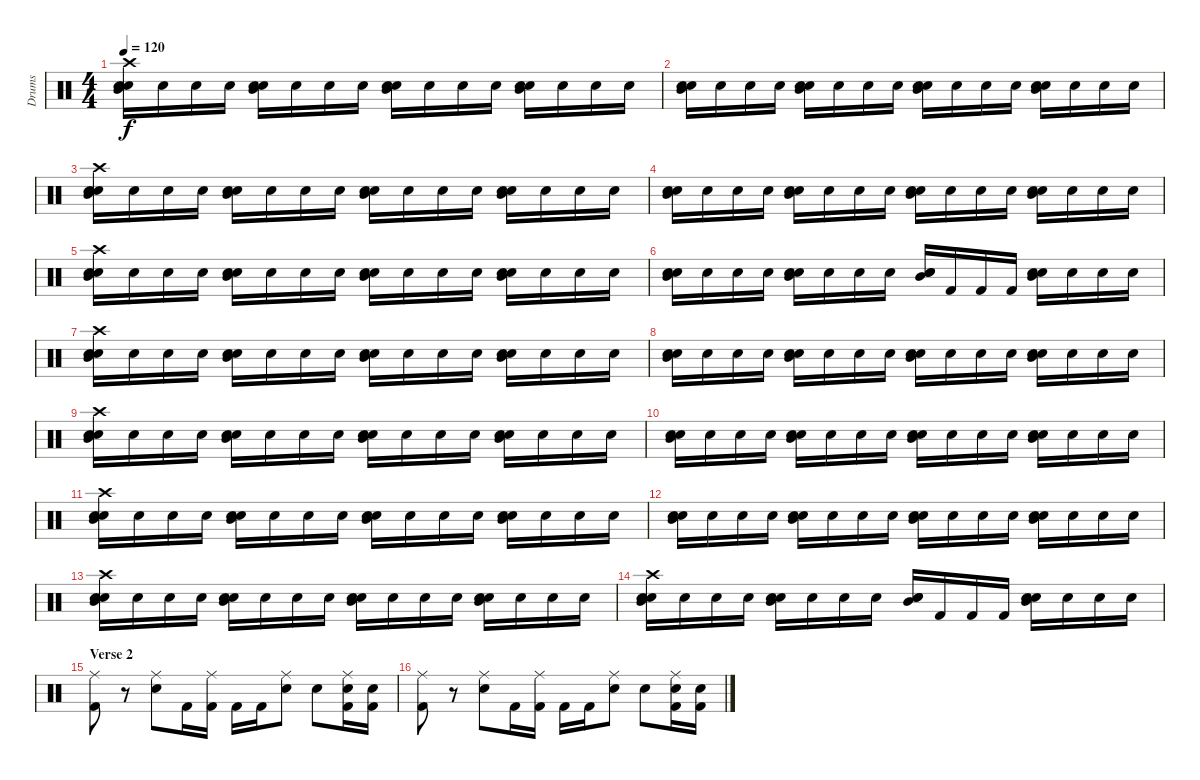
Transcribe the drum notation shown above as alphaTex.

\track ("Drums" "Drums") {instrument percussion}
\staff {score}
\articulation defaults
\ts (4 4)
\tempo 120
\clef neutral
\ks c
("Electric Snare (hit)" "Snare (hit) 2" "Mid Tom (hit)" "Crash high (hit)").16{dy f} "Snare (hit) 2".16 "Snare (hit) 2".16 "Snare (hit) 2".16 ("Mid Tom (hit)" "Snare (hit) 2" "Electric Snare (hit)").16 "Snare (hit) 2".16 "Snare (hit) 2".16 "Snare (hit) 2".16 ("Mid Tom (hit)" "Snare (hit) 2" "Electric Snare (hit)").16 "Snare (hit) 2".16 "Snare (hit) 2".16 "Snare (hit) 2".16 ("Mid Tom (hit)" "Snare (hit) 2" "Electric Snare (hit)").16 "Snare (hit) 2".16 "Snare (hit) 2".16 "Snare (hit) 2".16 |
("Electric Snare (hit)" "Snare (hit) 2" "Mid Tom (hit)").16 "Snare (hit) 2".16 "Snare (hit) 2".16 "Snare (hit) 2".16 ("Mid Tom (hit)" "Snare (hit) 2" "Electric Snare (hit)").16 "Snare (hit) 2".16 "Snare (hit) 2".16 "Snare (hit) 2".16 ("Mid Tom (hit)" "Snare (hit) 2" "Electric Snare (hit)").16 "Snare (hit) 2".16 "Snare (hit) 2".16 "Snare (hit) 2".16 ("Mid Tom (hit)" "Snare (hit) 2" "Electric Snare (hit)").16 "Snare (hit) 2".16 "Snare (hit) 2".16 "Snare (hit) 2".16 |
("Electric Snare (hit)" "Snare (hit) 2" "Mid Tom (hit)" "Crash high (hit)").16 "Snare (hit) 2".16 "Snare (hit) 2".16 "Snare (hit) 2".16 ("Mid Tom (hit)" "Snare (hit) 2" "Electric Snare (hit)").16 "Snare (hit) 2".16 "Snare (hit) 2".16 "Snare (hit) 2".16 ("Mid Tom (hit)" "Snare (hit) 2" "Electric Snare (hit)").16 "Snare (hit) 2".16 "Snare (hit) 2".16 "Snare (hit) 2".16 ("Mid Tom (hit)" "Snare (hit) 2" "Electric Snare (hit)").16 "Snare (hit) 2".16 "Snare (hit) 2".16 "Snare (hit) 2".16 |
("Electric Snare (hit)" "Snare (hit) 2" "Mid Tom (hit)").16 "Snare (hit) 2".16 "Snare (hit) 2".16 "Snare (hit) 2".16 ("Mid Tom (hit)" "Snare (hit) 2" "Electric Snare (hit)").16 "Snare (hit) 2".16 "Snare (hit) 2".16 "Snare (hit) 2".16 ("Mid Tom (hit)" "Snare (hit) 2" "Electric Snare (hit)").16 "Snare (hit) 2".16 "Snare (hit) 2".16 "Snare (hit) 2".16 ("Mid Tom (hit)" "Snare (hit) 2" "Electric Snare (hit)").16 "Snare (hit) 2".16 "Snare (hit) 2".16 "Snare (hit) 2".16 |
("Electric Snare (hit)" "Snare (hit) 2" "Mid Tom (hit)" "Crash high (hit)").16 "Snare (hit) 2".16 "Snare (hit) 2".16 "Snare (hit) 2".16 ("Mid Tom (hit)" "Snare (hit) 2" "Electric Snare (hit)").16 "Snare (hit) 2".16 "Snare (hit) 2".16 "Snare (hit) 2".16 ("Mid Tom (hit)" "Snare (hit) 2" "Electric Snare (hit)").16 "Snare (hit) 2".16 "Snare (hit) 2".16 "Snare (hit) 2".16 ("Mid Tom (hit)" "Snare (hit) 2" "Electric Snare (hit)").16 "Snare (hit) 2".16 "Snare (hit) 2".16 "Snare (hit) 2".16 |
("Electric Snare (hit)" "Snare (hit) 2" "Mid Tom (hit)").16 "Snare (hit) 2".16 "Snare (hit) 2".16 "Snare (hit) 2".16 ("Mid Tom (hit)" "Snare (hit) 2" "Electric Snare (hit)").16 "Snare (hit) 2".16 "Snare (hit) 2".16 "Snare (hit) 2".16 ("Mid Tom (hit)" "Snare (hit) 2" "Electric Snare (hit)").16 "Kick (hit) 2".16 "Kick (hit) 2".16 "Kick (hit) 2".16 ("Mid Tom (hit)" "Snare (hit) 2" "Electric Snare (hit)").16 "Electric Snare (hit)".16 "Electric Snare (hit)".16 "Electric Snare (hit)".16 |
("Electric Snare (hit)" "Snare (hit) 2" "Mid Tom (hit)" "Crash high (hit)").16 "Snare (hit) 2".16 "Snare (hit) 2".16 "Snare (hit) 2".16 ("Mid Tom (hit)" "Snare (hit) 2" "Electric Snare (hit)").16 "Snare (hit) 2".16 "Snare (hit) 2".16 "Snare (hit) 2".16 ("Mid Tom (hit)" "Snare (hit) 2" "Electric Snare (hit)").16 "Snare (hit) 2".16 "Snare (hit) 2".16 "Snare (hit) 2".16 ("Mid Tom (hit)" "Snare (hit) 2" "Electric Snare (hit)").16 "Snare (hit) 2".16 "Snare (hit) 2".16 "Snare (hit) 2".16 |
("Electric Snare (hit)" "Snare (hit) 2" "Mid Tom (hit)").16 "Snare (hit) 2".16 "Snare (hit) 2".16 "Snare (hit) 2".16 ("Mid Tom (hit)" "Snare (hit) 2" "Electric Snare (hit)").16 "Snare (hit) 2".16 "Snare (hit) 2".16 "Snare (hit) 2".16 ("Mid Tom (hit)" "Snare (hit) 2" "Electric Snare (hit)").16 "Snare (hit) 2".16 "Snare (hit) 2".16 "Snare (hit) 2".16 ("Mid Tom (hit)" "Snare (hit) 2" "Electric Snare (hit)").16 "Snare (hit) 2".16 "Snare (hit) 2".16 "Snare (hit) 2".16 |
("Electric Snare (hit)" "Snare (hit) 2" "Mid Tom (hit)" "Crash high (hit)").16 "Snare (hit) 2".16 "Snare (hit) 2".16 "Snare (hit) 2".16 ("Mid Tom (hit)" "Snare (hit) 2" "Electric Snare (hit)").16 "Snare (hit) 2".16 "Snare (hit) 2".16 "Snare (hit) 2".16 ("Mid Tom (hit)" "Snare (hit) 2" "Electric Snare (hit)").16 "Snare (hit) 2".16 "Snare (hit) 2".16 "Snare (hit) 2".16 ("Mid Tom (hit)" "Snare (hit) 2" "Electric Snare (hit)").16 "Snare (hit) 2".16 "Snare (hit) 2".16 "Snare (hit) 2".16 |
("Electric Snare (hit)" "Snare (hit) 2" "Mid Tom (hit)").16 "Snare (hit) 2".16 "Snare (hit) 2".16 "Snare (hit) 2".16 ("Mid Tom (hit)" "Snare (hit) 2" "Electric Snare (hit)").16 "Snare (hit) 2".16 "Snare (hit) 2".16 "Snare (hit) 2".16 ("Mid Tom (hit)" "Snare (hit) 2" "Electric Snare (hit)").16 "Snare (hit) 2".16 "Snare (hit) 2".16 "Snare (hit) 2".16 ("Mid Tom (hit)" "Snare (hit) 2" "Electric Snare (hit)").16 "Snare (hit) 2".16 "Snare (hit) 2".16 "Snare (hit) 2".16 |
("Electric Snare (hit)" "Snare (hit) 2" "Mid Tom (hit)" "Crash high (hit)").16 "Snare (hit) 2".16 "Snare (hit) 2".16 "Snare (hit) 2".16 ("Mid Tom (hit)" "Snare (hit) 2" "Electric Snare (hit)").16 "Snare (hit) 2".16 "Snare (hit) 2".16 "Snare (hit) 2".16 ("Mid Tom (hit)" "Snare (hit) 2" "Electric Snare (hit)").16 "Snare (hit) 2".16 "Snare (hit) 2".16 "Snare (hit) 2".16 ("Mid Tom (hit)" "Snare (hit) 2" "Electric Snare (hit)").16 "Snare (hit) 2".16 "Snare (hit) 2".16 "Snare (hit) 2".16 |
("Electric Snare (hit)" "Snare (hit) 2" "Mid Tom (hit)").16 "Snare (hit) 2".16 "Snare (hit) 2".16 "Snare (hit) 2".16 ("Mid Tom (hit)" "Snare (hit) 2" "Electric Snare (hit)").16 "Snare (hit) 2".16 "Snare (hit) 2".16 "Snare (hit) 2".16 ("Mid Tom (hit)" "Snare (hit) 2" "Electric Snare (hit)").16 "Snare (hit) 2".16 "Snare (hit) 2".16 "Snare (hit) 2".16 ("Mid Tom (hit)" "Snare (hit) 2" "Electric Snare (hit)").16 "Snare (hit) 2".16 "Snare (hit) 2".16 "Snare (hit) 2".16 |
("Electric Snare (hit)" "Snare (hit) 2" "Mid Tom (hit)" "Crash high (hit)").16 "Snare (hit) 2".16 "Snare (hit) 2".16 "Snare (hit) 2".16 ("Mid Tom (hit)" "Snare (hit) 2" "Electric Snare (hit)").16 "Snare (hit) 2".16 "Snare (hit) 2".16 "Snare (hit) 2".16 ("Mid Tom (hit)" "Snare (hit) 2" "Electric Snare (hit)").16 "Snare (hit) 2".16 "Snare (hit) 2".16 "Snare (hit) 2".16 ("Mid Tom (hit)" "Snare (hit) 2" "Electric Snare (hit)").16 "Snare (hit) 2".16 "Snare (hit) 2".16 "Snare (hit) 2".16 |
("Electric Snare (hit)" "Snare (hit) 2" "Mid Tom (hit)" "Crash high (hit)").16 "Snare (hit) 2".16 "Snare (hit) 2".16 "Snare (hit) 2".16 ("Mid Tom (hit)" "Snare (hit) 2" "Electric Snare (hit)").16 "Snare (hit) 2".16 "Snare (hit) 2".16 "Snare (hit) 2".16 ("Mid Tom (hit)" "Snare (hit) 2" "Electric Snare (hit)").16 "Kick (hit) 2".16 "Kick (hit) 2".16 "Kick (hit) 2".16 ("Mid Tom (hit)" "Snare (hit) 2" "Electric Snare (hit)").16 "Electric Snare (hit)".16 "Electric Snare (hit)".16 "Electric Snare (hit)".16 |
\section ("" "Verse 2")
("Ride (middle)" "Kick (hit) 2").8 r.8 ("Ride (middle)" "Snare (hit) 2").8 "Kick (hit) 2".16 ("Ride (middle)" "Kick (hit) 2").16 "Kick (hit) 2".16 "Kick (hit) 2".16 ("Ride (middle)" "Snare (hit) 2").8 "Snare (hit) 2".8 ("Ride (middle)" "Electric Snare (hit)" "Kick (hit) 2").16 ("Electric Snare (hit)" "Kick (hit) 2").16 |
("Ride (middle)" "Kick (hit) 2").8 r.8 ("Ride (middle)" "Snare (hit) 2").8 "Kick (hit) 2".16 ("Ride (middle)" "Kick (hit) 2").16 "Kick (hit) 2".16 "Kick (hit) 2".16 ("Ride (middle)" "Snare (hit) 2").8 "Snare (hit) 2".8 ("Ride (middle)" "Electric Snare (hit)" "Kick (hit) 2").16 ("Electric Snare (hit)" "Kick (hit) 2").16
